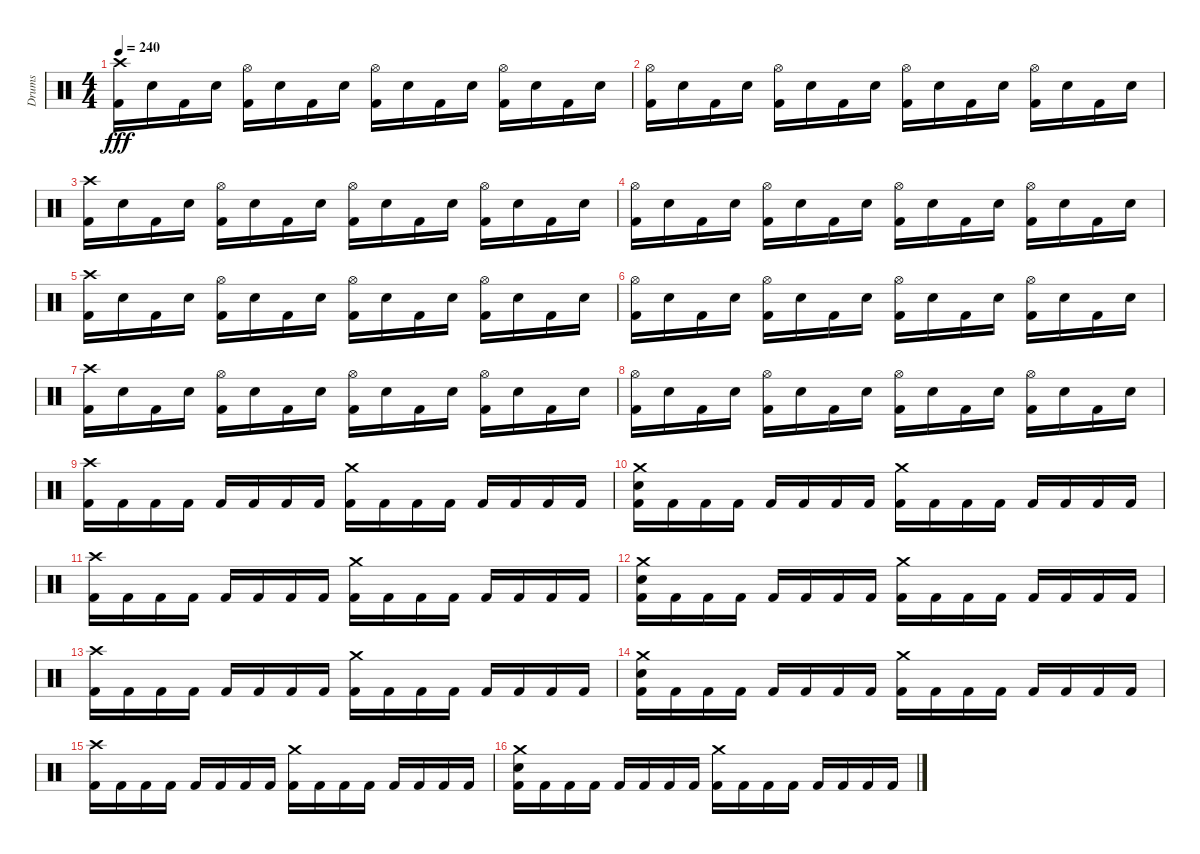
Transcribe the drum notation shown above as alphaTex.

\track ("Drums" "Drums") {instrument percussion}
\staff {score}
\articulation defaults
\ts (4 4)
\tempo 240
\clef neutral
\ks c
("Crash high (hit)" "Kick (hit) 2").16{dy fff} "Electric Snare (hit)".16 "Kick (hit) 2".16 "Electric Snare (hit)".16 ("Hi-Hat (open)" "Kick (hit) 2").16 "Electric Snare (hit)".16 "Kick (hit) 2".16 "Electric Snare (hit)".16 ("Hi-Hat (open)" "Kick (hit) 2").16 "Electric Snare (hit)".16 "Kick (hit) 2".16 "Electric Snare (hit)".16 ("Hi-Hat (open)" "Kick (hit) 2").16 "Electric Snare (hit)".16 "Kick (hit) 2".16 "Electric Snare (hit)".16 |
("Hi-Hat (open)" "Kick (hit) 2").16 "Electric Snare (hit)".16 "Kick (hit) 2".16 "Electric Snare (hit)".16 ("Hi-Hat (open)" "Kick (hit) 2").16 "Electric Snare (hit)".16 "Kick (hit) 2".16 "Electric Snare (hit)".16 ("Hi-Hat (open)" "Kick (hit) 2").16 "Electric Snare (hit)".16 "Kick (hit) 2".16 "Electric Snare (hit)".16 ("Hi-Hat (open)" "Kick (hit) 2").16 "Electric Snare (hit)".16 "Kick (hit) 2".16 "Electric Snare (hit)".16 |
("Crash high (hit)" "Kick (hit) 2").16 "Electric Snare (hit)".16 "Kick (hit) 2".16 "Electric Snare (hit)".16 ("Hi-Hat (open)" "Kick (hit) 2").16 "Electric Snare (hit)".16 "Kick (hit) 2".16 "Electric Snare (hit)".16 ("Hi-Hat (open)" "Kick (hit) 2").16 "Electric Snare (hit)".16 "Kick (hit) 2".16 "Electric Snare (hit)".16 ("Hi-Hat (open)" "Kick (hit) 2").16 "Electric Snare (hit)".16 "Kick (hit) 2".16 "Electric Snare (hit)".16 |
("Hi-Hat (open)" "Kick (hit) 2").16 "Electric Snare (hit)".16 "Kick (hit) 2".16 "Electric Snare (hit)".16 ("Hi-Hat (open)" "Kick (hit) 2").16 "Electric Snare (hit)".16 "Kick (hit) 2".16 "Electric Snare (hit)".16 ("Hi-Hat (open)" "Kick (hit) 2").16 "Electric Snare (hit)".16 "Kick (hit) 2".16 "Electric Snare (hit)".16 ("Hi-Hat (open)" "Kick (hit) 2").16 "Electric Snare (hit)".16 "Kick (hit) 2".16 "Electric Snare (hit)".16 |
("Crash high (hit)" "Kick (hit) 2").16 "Electric Snare (hit)".16 "Kick (hit) 2".16 "Electric Snare (hit)".16 ("Hi-Hat (open)" "Kick (hit) 2").16 "Electric Snare (hit)".16 "Kick (hit) 2".16 "Electric Snare (hit)".16 ("Hi-Hat (open)" "Kick (hit) 2").16 "Electric Snare (hit)".16 "Kick (hit) 2".16 "Electric Snare (hit)".16 ("Hi-Hat (open)" "Kick (hit) 2").16 "Electric Snare (hit)".16 "Kick (hit) 2".16 "Electric Snare (hit)".16 |
("Hi-Hat (open)" "Kick (hit) 2").16 "Electric Snare (hit)".16 "Kick (hit) 2".16 "Electric Snare (hit)".16 ("Hi-Hat (open)" "Kick (hit) 2").16 "Electric Snare (hit)".16 "Kick (hit) 2".16 "Electric Snare (hit)".16 ("Hi-Hat (open)" "Kick (hit) 2").16 "Electric Snare (hit)".16 "Kick (hit) 2".16 "Electric Snare (hit)".16 ("Hi-Hat (open)" "Kick (hit) 2").16 "Electric Snare (hit)".16 "Kick (hit) 2".16 "Electric Snare (hit)".16 |
("Crash high (hit)" "Kick (hit) 2").16 "Electric Snare (hit)".16 "Kick (hit) 2".16 "Electric Snare (hit)".16 ("Hi-Hat (open)" "Kick (hit) 2").16 "Electric Snare (hit)".16 "Kick (hit) 2".16 "Electric Snare (hit)".16 ("Hi-Hat (open)" "Kick (hit) 2").16 "Electric Snare (hit)".16 "Kick (hit) 2".16 "Electric Snare (hit)".16 ("Hi-Hat (open)" "Kick (hit) 2").16 "Electric Snare (hit)".16 "Kick (hit) 2".16 "Electric Snare (hit)".16 |
("Hi-Hat (open)" "Kick (hit) 2").16 "Electric Snare (hit)".16 "Kick (hit) 2".16 "Electric Snare (hit)".16 ("Hi-Hat (open)" "Kick (hit) 2").16 "Electric Snare (hit)".16 "Kick (hit) 2".16 "Electric Snare (hit)".16 ("Hi-Hat (open)" "Kick (hit) 2").16 "Electric Snare (hit)".16 "Kick (hit) 2".16 "Electric Snare (hit)".16 ("Hi-Hat (open)" "Kick (hit) 2").16 "Electric Snare (hit)".16 "Kick (hit) 2".16 "Electric Snare (hit)".16 |
("Crash high (hit)" "Kick (hit) 2").16 "Kick (hit) 2".16 "Kick (hit) 2".16 "Kick (hit) 2".16 "Kick (hit) 2".16 "Kick (hit) 2".16 "Kick (hit) 2".16 "Kick (hit) 2".16 ("Crash medium (hit)" "Kick (hit) 2").16 "Kick (hit) 2".16 "Kick (hit) 2".16 "Kick (hit) 2".16 "Kick (hit) 2".16 "Kick (hit) 2".16 "Kick (hit) 2".16 "Kick (hit) 2".16 |
("Crash medium (hit)" "Electric Snare (hit)" "Kick (hit) 2").16 "Kick (hit) 2".16 "Kick (hit) 2".16 "Kick (hit) 2".16 "Kick (hit) 2".16 "Kick (hit) 2".16 "Kick (hit) 2".16 "Kick (hit) 2".16 ("Crash medium (hit)" "Kick (hit) 2").16 "Kick (hit) 2".16 "Kick (hit) 2".16 "Kick (hit) 2".16 "Kick (hit) 2".16 "Kick (hit) 2".16 "Kick (hit) 2".16 "Kick (hit) 2".16 |
("Crash high (hit)" "Kick (hit) 2").16 "Kick (hit) 2".16 "Kick (hit) 2".16 "Kick (hit) 2".16 "Kick (hit) 2".16 "Kick (hit) 2".16 "Kick (hit) 2".16 "Kick (hit) 2".16 ("Crash medium (hit)" "Kick (hit) 2").16 "Kick (hit) 2".16 "Kick (hit) 2".16 "Kick (hit) 2".16 "Kick (hit) 2".16 "Kick (hit) 2".16 "Kick (hit) 2".16 "Kick (hit) 2".16 |
("Crash medium (hit)" "Electric Snare (hit)" "Kick (hit) 2").16 "Kick (hit) 2".16 "Kick (hit) 2".16 "Kick (hit) 2".16 "Kick (hit) 2".16 "Kick (hit) 2".16 "Kick (hit) 2".16 "Kick (hit) 2".16 ("Crash medium (hit)" "Kick (hit) 2").16 "Kick (hit) 2".16 "Kick (hit) 2".16 "Kick (hit) 2".16 "Kick (hit) 2".16 "Kick (hit) 2".16 "Kick (hit) 2".16 "Kick (hit) 2".16 |
("Crash high (hit)" "Kick (hit) 2").16 "Kick (hit) 2".16 "Kick (hit) 2".16 "Kick (hit) 2".16 "Kick (hit) 2".16 "Kick (hit) 2".16 "Kick (hit) 2".16 "Kick (hit) 2".16 ("Crash medium (hit)" "Kick (hit) 2").16 "Kick (hit) 2".16 "Kick (hit) 2".16 "Kick (hit) 2".16 "Kick (hit) 2".16 "Kick (hit) 2".16 "Kick (hit) 2".16 "Kick (hit) 2".16 |
("Crash medium (hit)" "Electric Snare (hit)" "Kick (hit) 2").16 "Kick (hit) 2".16 "Kick (hit) 2".16 "Kick (hit) 2".16 "Kick (hit) 2".16 "Kick (hit) 2".16 "Kick (hit) 2".16 "Kick (hit) 2".16 ("Crash medium (hit)" "Kick (hit) 2").16 "Kick (hit) 2".16 "Kick (hit) 2".16 "Kick (hit) 2".16 "Kick (hit) 2".16 "Kick (hit) 2".16 "Kick (hit) 2".16 "Kick (hit) 2".16 |
("Crash high (hit)" "Kick (hit) 2").16 "Kick (hit) 2".16 "Kick (hit) 2".16 "Kick (hit) 2".16 "Kick (hit) 2".16 "Kick (hit) 2".16 "Kick (hit) 2".16 "Kick (hit) 2".16 ("Crash medium (hit)" "Kick (hit) 2").16 "Kick (hit) 2".16 "Kick (hit) 2".16 "Kick (hit) 2".16 "Kick (hit) 2".16 "Kick (hit) 2".16 "Kick (hit) 2".16 "Kick (hit) 2".16 |
("Crash medium (hit)" "Electric Snare (hit)" "Kick (hit) 2").16 "Kick (hit) 2".16 "Kick (hit) 2".16 "Kick (hit) 2".16 "Kick (hit) 2".16 "Kick (hit) 2".16 "Kick (hit) 2".16 "Kick (hit) 2".16 ("Crash medium (hit)" "Kick (hit) 2").16 "Kick (hit) 2".16 "Kick (hit) 2".16 "Kick (hit) 2".16 "Kick (hit) 2".16 "Kick (hit) 2".16 "Kick (hit) 2".16 "Kick (hit) 2".16
